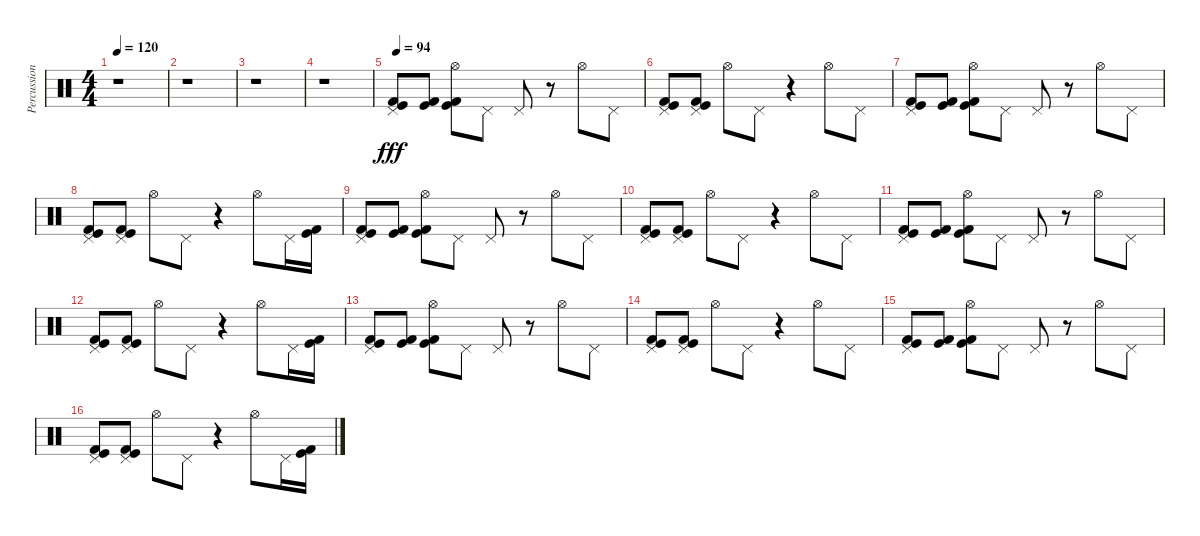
\track ("Percussion" "Percussion") {instrument percussion}
\staff {score}
\articulation defaults
\ts (4 4)
\tempo 120
\clef neutral
\ks c
r.1{dy fff} |
r.1 |
r.1 |
r.1 |
\tempo 94
("Pedal Hi-Hat (hit)" "Kick (hit) 2" "Kick (hit)").8 ("Kick (hit) 2" "Kick (hit)").8 ("Hi-Hat (open)" "Kick (hit) 2" "Kick (hit)").8 "Pedal Hi-Hat (hit)".8 "Pedal Hi-Hat (hit)".8 r.8 "Hi-Hat (open)".8 "Pedal Hi-Hat (hit)".8 |
("Kick (hit)" "Kick (hit) 2" "Pedal Hi-Hat (hit)").8 ("Kick (hit) 2" "Kick (hit)" "Pedal Hi-Hat (hit)").8 "Hi-Hat (open)".8 "Pedal Hi-Hat (hit)".8 r.4 "Hi-Hat (open)".8 "Pedal Hi-Hat (hit)".8 |
("Kick (hit)" "Kick (hit) 2" "Pedal Hi-Hat (hit)").8 ("Kick (hit) 2" "Kick (hit)").8 ("Hi-Hat (open)" "Kick (hit) 2" "Kick (hit)").8 "Pedal Hi-Hat (hit)".8 "Pedal Hi-Hat (hit)".8 r.8 "Hi-Hat (open)".8 "Pedal Hi-Hat (hit)".8 |
("Kick (hit)" "Kick (hit) 2" "Pedal Hi-Hat (hit)").8 ("Kick (hit) 2" "Kick (hit)" "Pedal Hi-Hat (hit)").8 "Hi-Hat (open)".8 "Pedal Hi-Hat (hit)".8 r.4 "Hi-Hat (open)".8 "Pedal Hi-Hat (hit)".16 ("Kick (hit) 2" "Kick (hit)").16 |
("Pedal Hi-Hat (hit)" "Kick (hit) 2" "Kick (hit)").8 ("Kick (hit) 2" "Kick (hit)").8 ("Hi-Hat (open)" "Kick (hit) 2" "Kick (hit)").8 "Pedal Hi-Hat (hit)".8 "Pedal Hi-Hat (hit)".8 r.8 "Hi-Hat (open)".8 "Pedal Hi-Hat (hit)".8 |
("Kick (hit)" "Kick (hit) 2" "Pedal Hi-Hat (hit)").8 ("Kick (hit) 2" "Kick (hit)" "Pedal Hi-Hat (hit)").8 "Hi-Hat (open)".8 "Pedal Hi-Hat (hit)".8 r.4 "Hi-Hat (open)".8 "Pedal Hi-Hat (hit)".8 |
("Kick (hit)" "Kick (hit) 2" "Pedal Hi-Hat (hit)").8 ("Kick (hit) 2" "Kick (hit)").8 ("Hi-Hat (open)" "Kick (hit) 2" "Kick (hit)").8 "Pedal Hi-Hat (hit)".8 "Pedal Hi-Hat (hit)".8 r.8 "Hi-Hat (open)".8 "Pedal Hi-Hat (hit)".8 |
("Kick (hit)" "Kick (hit) 2" "Pedal Hi-Hat (hit)").8 ("Kick (hit) 2" "Kick (hit)" "Pedal Hi-Hat (hit)").8 "Hi-Hat (open)".8 "Pedal Hi-Hat (hit)".8 r.4 "Hi-Hat (open)".8 "Pedal Hi-Hat (hit)".16 ("Kick (hit) 2" "Kick (hit)").16 |
("Pedal Hi-Hat (hit)" "Kick (hit) 2" "Kick (hit)").8 ("Kick (hit) 2" "Kick (hit)").8 ("Hi-Hat (open)" "Kick (hit) 2" "Kick (hit)").8 "Pedal Hi-Hat (hit)".8 "Pedal Hi-Hat (hit)".8 r.8 "Hi-Hat (open)".8 "Pedal Hi-Hat (hit)".8 |
("Kick (hit)" "Kick (hit) 2" "Pedal Hi-Hat (hit)").8 ("Kick (hit) 2" "Kick (hit)" "Pedal Hi-Hat (hit)").8 "Hi-Hat (open)".8 "Pedal Hi-Hat (hit)".8 r.4 "Hi-Hat (open)".8 "Pedal Hi-Hat (hit)".8 |
("Kick (hit)" "Kick (hit) 2" "Pedal Hi-Hat (hit)").8 ("Kick (hit) 2" "Kick (hit)").8 ("Hi-Hat (open)" "Kick (hit) 2" "Kick (hit)").8 "Pedal Hi-Hat (hit)".8 "Pedal Hi-Hat (hit)".8 r.8 "Hi-Hat (open)".8 "Pedal Hi-Hat (hit)".8 |
("Kick (hit)" "Kick (hit) 2" "Pedal Hi-Hat (hit)").8 ("Kick (hit) 2" "Kick (hit)" "Pedal Hi-Hat (hit)").8 "Hi-Hat (open)".8 "Pedal Hi-Hat (hit)".8 r.4 "Hi-Hat (open)".8 "Pedal Hi-Hat (hit)".16 ("Kick (hit) 2" "Kick (hit)").16
